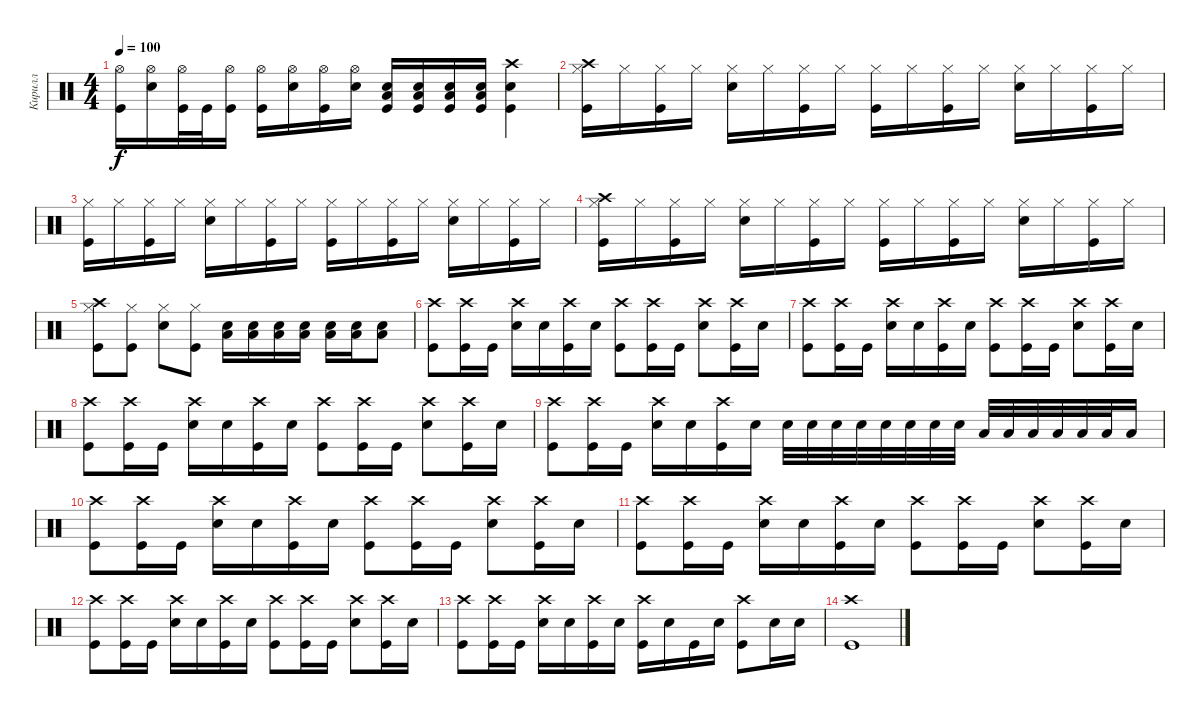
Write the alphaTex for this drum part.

\track ("Кирилл " "Кирилл ") {instrument percussion}
\staff {score}
\articulation defaults
\ts (4 4)
\tempo 100
\clef neutral
\ks c
("Hi-Hat (open)" "Kick (hit)").16{dy f} ("Hi-Hat (open)" "Electric Snare (hit)").16 ("Hi-Hat (open)" "Kick (hit)").32 "Kick (hit)".32 ("Hi-Hat (open)" "Kick (hit)").16 ("Hi-Hat (open)" "Kick (hit)").16 ("Hi-Hat (open)" "Electric Snare (hit)").16 ("Hi-Hat (open)" "Kick (hit)").16 ("Hi-Hat (open)" "Electric Snare (hit)").16 ("Low Tom (hit)" "Electric Snare (hit)" "Kick (hit)").16 ("Low Tom (hit)" "Electric Snare (hit)" "Kick (hit)").16 ("Low Tom (hit)" "Electric Snare (hit)" "Kick (hit)").16 ("Low Tom (hit)" "Electric Snare (hit)" "Kick (hit)").16 ("Crash high (hit)" "Electric Snare (hit)" "Kick (hit)").4 |
("Hi-Hat (closed)" "Crash high (hit)" "Kick (hit)").16 "Hi-Hat (closed)".16 ("Hi-Hat (closed)" "Kick (hit)").16 "Hi-Hat (closed)".16 ("Hi-Hat (closed)" "Electric Snare (hit)").16 "Hi-Hat (closed)".16 ("Hi-Hat (closed)" "Kick (hit)").16 "Hi-Hat (closed)".16 ("Hi-Hat (closed)" "Kick (hit)").16 "Hi-Hat (closed)".16 ("Hi-Hat (closed)" "Kick (hit)").16 "Hi-Hat (closed)".16 ("Hi-Hat (closed)" "Electric Snare (hit)").16 "Hi-Hat (closed)".16 ("Hi-Hat (closed)" "Kick (hit)").16 "Hi-Hat (closed)".16 |
("Hi-Hat (closed)" "Kick (hit)").16 "Hi-Hat (closed)".16 ("Hi-Hat (closed)" "Kick (hit)").16 "Hi-Hat (closed)".16 ("Hi-Hat (closed)" "Electric Snare (hit)").16 "Hi-Hat (closed)".16 ("Hi-Hat (closed)" "Kick (hit)").16 "Hi-Hat (closed)".16 ("Hi-Hat (closed)" "Kick (hit)").16 "Hi-Hat (closed)".16 ("Hi-Hat (closed)" "Kick (hit)").16 "Hi-Hat (closed)".16 ("Hi-Hat (closed)" "Electric Snare (hit)").16 "Hi-Hat (closed)".16 ("Hi-Hat (closed)" "Kick (hit)").16 "Hi-Hat (closed)".16 |
("Hi-Hat (closed)" "Crash high (hit)" "Kick (hit)").16 "Hi-Hat (closed)".16 ("Hi-Hat (closed)" "Kick (hit)").16 "Hi-Hat (closed)".16 ("Hi-Hat (closed)" "Electric Snare (hit)").16 "Hi-Hat (closed)".16 ("Hi-Hat (closed)" "Kick (hit)").16 "Hi-Hat (closed)".16 ("Hi-Hat (closed)" "Kick (hit)").16 "Hi-Hat (closed)".16 ("Hi-Hat (closed)" "Kick (hit)").16 "Hi-Hat (closed)".16 ("Hi-Hat (closed)" "Electric Snare (hit)").16 "Hi-Hat (closed)".16 ("Hi-Hat (closed)" "Kick (hit)").16 "Hi-Hat (closed)".16 |
("Hi-Hat (closed)" "Crash high (hit)" "Kick (hit)").8 ("Hi-Hat (closed)" "Kick (hit)").8 ("Hi-Hat (closed)" "Electric Snare (hit)").8 ("Hi-Hat (closed)" "Kick (hit)").8 ("Low Tom (hit)" "Electric Snare (hit)").16 ("Low Tom (hit)" "Electric Snare (hit)").16 ("Low Tom (hit)" "Electric Snare (hit)").16 ("Low Tom (hit)" "Electric Snare (hit)").16 ("Low Tom (hit)" "Electric Snare (hit)").16 ("Low Tom (hit)" "Electric Snare (hit)").16 ("Low Tom (hit)" "Electric Snare (hit)").8 |
("Crash high (hit)" "Kick (hit)").8 ("Crash high (hit)" "Kick (hit)").16 "Kick (hit)".16 ("Crash high (hit)" "Electric Snare (hit)").16 "Electric Snare (hit)".16 ("Crash high (hit)" "Kick (hit)").16 "Electric Snare (hit)".16 ("Crash high (hit)" "Kick (hit)").8 ("Crash high (hit)" "Kick (hit)").16 "Kick (hit)".16 ("Crash high (hit)" "Electric Snare (hit)").8 ("Crash high (hit)" "Kick (hit)").16 "Electric Snare (hit)".16 |
("Crash high (hit)" "Kick (hit)").8 ("Crash high (hit)" "Kick (hit)").16 "Kick (hit)".16 ("Crash high (hit)" "Electric Snare (hit)").16 "Electric Snare (hit)".16 ("Crash high (hit)" "Kick (hit)").16 "Electric Snare (hit)".16 ("Crash high (hit)" "Kick (hit)").8 ("Crash high (hit)" "Kick (hit)").16 "Kick (hit)".16 ("Crash high (hit)" "Electric Snare (hit)").8 ("Crash high (hit)" "Kick (hit)").16 "Electric Snare (hit)".16 |
("Crash high (hit)" "Kick (hit)").8 ("Crash high (hit)" "Kick (hit)").16 "Kick (hit)".16 ("Crash high (hit)" "Electric Snare (hit)").16 "Electric Snare (hit)".16 ("Crash high (hit)" "Kick (hit)").16 "Electric Snare (hit)".16 ("Crash high (hit)" "Kick (hit)").8 ("Crash high (hit)" "Kick (hit)").16 "Kick (hit)".16 ("Crash high (hit)" "Electric Snare (hit)").8 ("Crash high (hit)" "Kick (hit)").16 "Electric Snare (hit)".16 |
("Crash high (hit)" "Kick (hit)").8 ("Crash high (hit)" "Kick (hit)").16 "Kick (hit)".16 ("Crash high (hit)" "Electric Snare (hit)").16 "Electric Snare (hit)".16 ("Crash high (hit)" "Kick (hit)").16 "Electric Snare (hit)".16 "Snare (hit) 2".32 "Snare (hit) 2".32 "Snare (hit) 2".32 "Snare (hit) 2".32 "Snare (hit) 2".32 "Snare (hit) 2".32 "Snare (hit) 2".32 "Snare (hit) 2".32 "Low Tom (hit)".32 "Low Tom (hit)".32 "Low Tom (hit)".32 "Low Tom (hit)".32 "Low Tom (hit)".32 "Low Tom (hit)".32 "Low Tom (hit)".16 |
("Crash high (hit)" "Kick (hit)").8 ("Crash high (hit)" "Kick (hit)").16 "Kick (hit)".16 ("Crash high (hit)" "Electric Snare (hit)").16 "Electric Snare (hit)".16 ("Crash high (hit)" "Kick (hit)").16 "Electric Snare (hit)".16 ("Crash high (hit)" "Kick (hit)").8 ("Crash high (hit)" "Kick (hit)").16 "Kick (hit)".16 ("Crash high (hit)" "Electric Snare (hit)").8 ("Crash high (hit)" "Kick (hit)").16 "Electric Snare (hit)".16 |
("Crash high (hit)" "Kick (hit)").8 ("Crash high (hit)" "Kick (hit)").16 "Kick (hit)".16 ("Crash high (hit)" "Electric Snare (hit)").16 "Electric Snare (hit)".16 ("Crash high (hit)" "Kick (hit)").16 "Electric Snare (hit)".16 ("Crash high (hit)" "Kick (hit)").8 ("Crash high (hit)" "Kick (hit)").16 "Kick (hit)".16 ("Crash high (hit)" "Electric Snare (hit)").8 ("Crash high (hit)" "Kick (hit)").16 "Electric Snare (hit)".16 |
("Crash high (hit)" "Kick (hit)").8 ("Crash high (hit)" "Kick (hit)").16 "Kick (hit)".16 ("Crash high (hit)" "Electric Snare (hit)").16 "Electric Snare (hit)".16 ("Crash high (hit)" "Kick (hit)").16 "Electric Snare (hit)".16 ("Crash high (hit)" "Kick (hit)").8 ("Crash high (hit)" "Kick (hit)").16 "Kick (hit)".16 ("Crash high (hit)" "Electric Snare (hit)").8 ("Crash high (hit)" "Kick (hit)").16 "Electric Snare (hit)".16 |
("Crash high (hit)" "Kick (hit)").8 ("Crash high (hit)" "Kick (hit)").16 "Kick (hit)".16 ("Crash high (hit)" "Electric Snare (hit)").16 "Electric Snare (hit)".16 ("Crash high (hit)" "Kick (hit)").16 "Electric Snare (hit)".16 ("Crash high (hit)" "Kick (hit)").16 "Electric Snare (hit)".16 "Kick (hit)".16 "Electric Snare (hit)".16 ("Crash high (hit)" "Kick (hit)").8 "Electric Snare (hit)".16 "Electric Snare (hit)".16 |
("Crash high (hit)" "Kick (hit)").1
